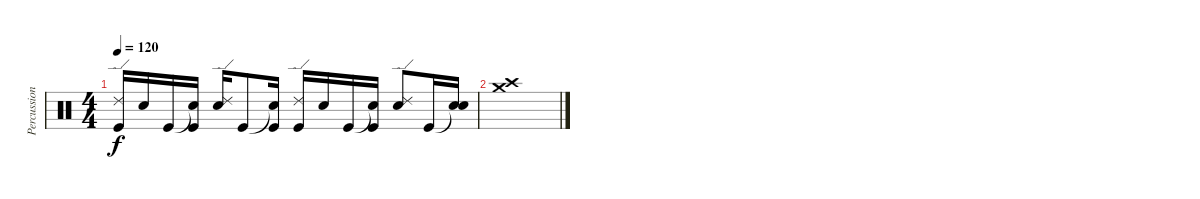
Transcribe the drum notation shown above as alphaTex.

\track ("Percussion" "Percussion") {instrument percussion}
\staff {score}
\articulation defaults
\ts (4 4)
\tempo 120
\clef neutral
\ks c
("Ride (edge) 2" "Kick (hit)").16{dy f} "Electric Snare (hit)".16 "Kick (hit)".16 ("Snare (hit)"{t} "Kick (hit)").16 ("Ride (edge) 2" "Electric Snare (hit)").16 "Kick (hit)".8 ("Snare (hit)"{t} "Kick (hit)").16 ("Ride (edge) 2" "Kick (hit)").16 "Electric Snare (hit)".16 "Kick (hit)".16 ("Snare (hit)"{t} "Kick (hit)").16 ("Ride (edge) 2" "Electric Snare (hit)").8 "Kick (hit)".16 ("Snare (hit)"{t} "Electric Snare (hit)").16 |
("Crash medium (hit)" "Crash high (hit)").1
